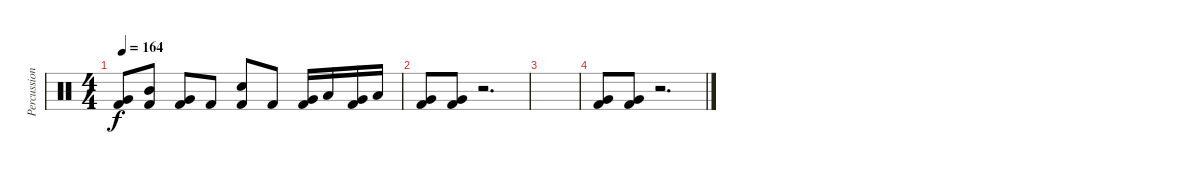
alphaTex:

\track ("Percussions" "Percussion") {instrument percussion}
\staff {score}
\articulation defaults
\ts (4 4)
\tempo 164
\clef neutral
\ks c
("Very Low Tom (hit)" "Kick (hit) 2").8{dy f} ("Mid Tom (hit)" "Kick (hit) 2").8 ("Very Low Tom (hit)" "Kick (hit) 2").8 "Kick (hit) 2".8 ("Snare (hit) 2" "Kick (hit) 2").8 "Kick (hit) 2".8 ("Very Low Tom (hit)" "Kick (hit) 2").16 "Low Tom (hit)".16 ("Very Low Tom (hit)" "Kick (hit) 2").16 "Low Tom (hit)".16 |
("Very Low Tom (hit)" "Kick (hit) 2").8 ("Very Low Tom (hit)" "Kick (hit) 2").8 r.2{d} |
|
("Very Low Tom (hit)" "Kick (hit) 2").8 ("Very Low Tom (hit)" "Kick (hit) 2").8 r.2{d}
